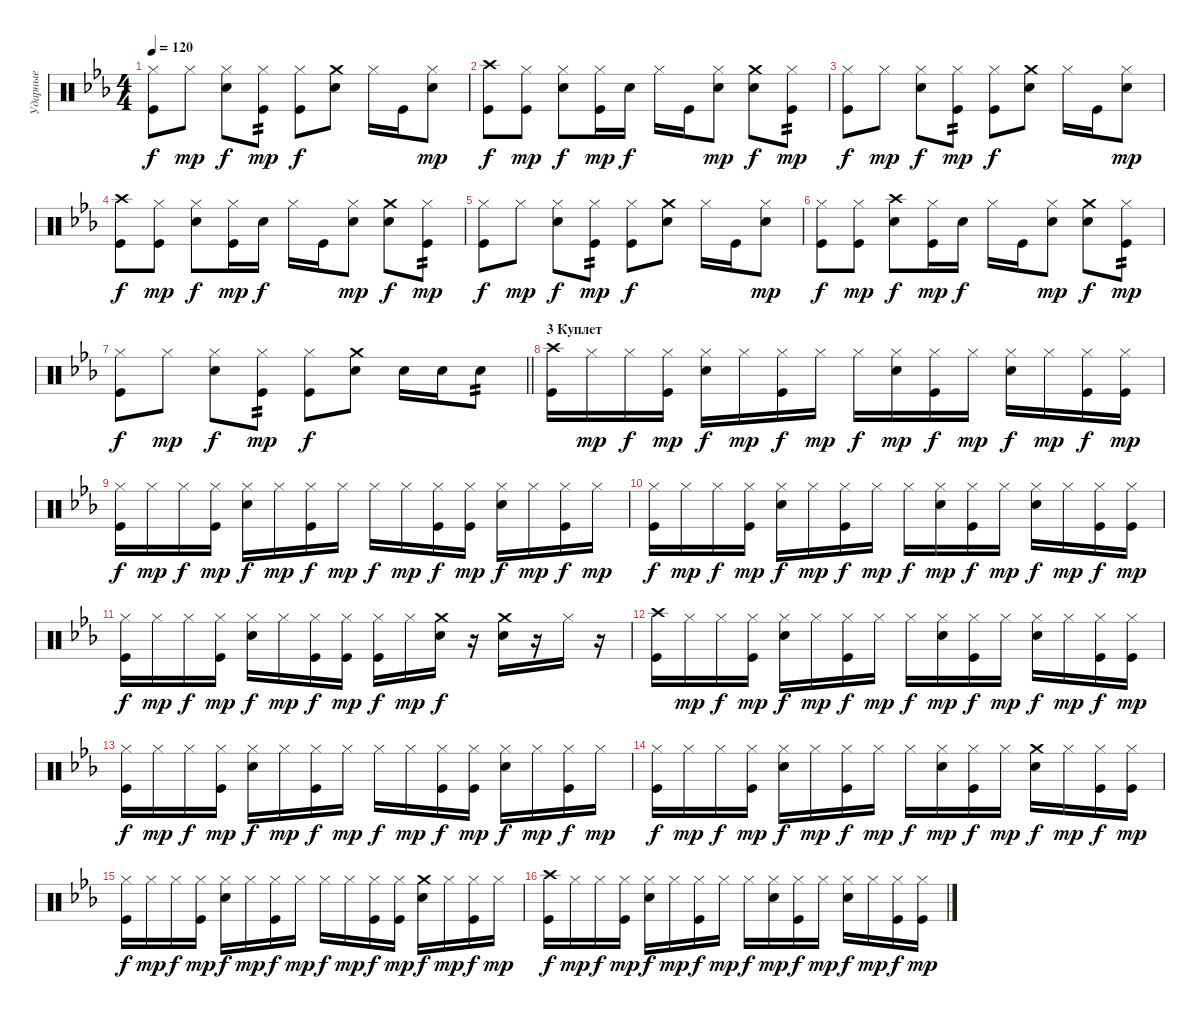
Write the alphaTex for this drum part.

\track ("Ударные" "Ударные") {instrument percussion}
\staff {score}
\articulation defaults
\ts (4 4)
\tempo 120
\clef neutral
\ks cminor
("Hi-Hat (closed)" "Kick (hit)").8{dy f} "Hi-Hat (closed)".8{dy mp} ("Hi-Hat (closed)" "Snare (hit) 2").8{dy f} ("Hi-Hat (closed)" "Kick (hit)").8{tp 2 dy mp} ("Hi-Hat (closed)" "Kick (hit)").8{dy f} ("Crash medium (hit)" "Snare (hit) 2").8 "Hi-Hat (closed)".16 "Kick (hit)".16 ("Hi-Hat (closed)" "Snare (hit) 2").8{dy mp} |
("Crash high (hit)" "Kick (hit)").8{dy f} ("Hi-Hat (closed)" "Kick (hit)").8{dy mp} ("Hi-Hat (closed)" "Snare (hit) 2").8{dy f} ("Hi-Hat (closed)" "Kick (hit)").16{dy mp} "Snare (hit) 2".16{dy f} "Hi-Hat (closed)".16 "Kick (hit)".16 ("Hi-Hat (closed)" "Snare (hit) 2").8{dy mp} ("Crash medium (hit)" "Snare (hit) 2").8{dy f} ("Hi-Hat (closed)" "Kick (hit)").8{tp 2 dy mp} |
("Hi-Hat (closed)" "Kick (hit)").8{dy f} "Hi-Hat (closed)".8{dy mp} ("Hi-Hat (closed)" "Snare (hit) 2").8{dy f} ("Hi-Hat (closed)" "Kick (hit)").8{tp 2 dy mp} ("Hi-Hat (closed)" "Kick (hit)").8{dy f} ("Crash medium (hit)" "Snare (hit) 2").8 "Hi-Hat (closed)".16 "Kick (hit)".16 ("Hi-Hat (closed)" "Snare (hit) 2").8{dy mp} |
("Crash high (hit)" "Kick (hit)").8{dy f} ("Hi-Hat (closed)" "Kick (hit)").8{dy mp} ("Hi-Hat (closed)" "Snare (hit) 2").8{dy f} ("Hi-Hat (closed)" "Kick (hit)").16{dy mp} "Snare (hit) 2".16{dy f} "Hi-Hat (closed)".16 "Kick (hit)".16 ("Hi-Hat (closed)" "Snare (hit) 2").8{dy mp} ("Crash medium (hit)" "Snare (hit) 2").8{dy f} ("Hi-Hat (closed)" "Kick (hit)").8{tp 2 dy mp} |
("Hi-Hat (closed)" "Kick (hit)").8{dy f} "Hi-Hat (closed)".8{dy mp} ("Hi-Hat (closed)" "Snare (hit) 2").8{dy f} ("Hi-Hat (closed)" "Kick (hit)").8{tp 2 dy mp} ("Hi-Hat (closed)" "Kick (hit)").8{dy f} ("Crash medium (hit)" "Snare (hit) 2").8 "Hi-Hat (closed)".16 "Kick (hit)".16 ("Hi-Hat (closed)" "Snare (hit) 2").8{dy mp} |
("Hi-Hat (closed)" "Kick (hit)").8{dy f} ("Hi-Hat (closed)" "Kick (hit)").8{dy mp} ("Crash high (hit)" "Snare (hit) 2").8{dy f} ("Hi-Hat (closed)" "Kick (hit)").16{dy mp} "Snare (hit) 2".16{dy f} "Hi-Hat (closed)".16 "Kick (hit)".16 ("Hi-Hat (closed)" "Snare (hit) 2").8{dy mp} ("Crash medium (hit)" "Snare (hit) 2").8{dy f} ("Hi-Hat (closed)" "Kick (hit)").8{tp 2 dy mp} |
\barLineRight lightlight
("Hi-Hat (closed)" "Kick (hit)").8{dy f} "Hi-Hat (closed)".8{dy mp} ("Hi-Hat (closed)" "Snare (hit) 2").8{dy f} ("Hi-Hat (closed)" "Kick (hit)").8{tp 2 dy mp} ("Hi-Hat (closed)" "Kick (hit)").8{dy f} ("Crash medium (hit)" "Snare (hit) 2").8 "Snare (hit) 2".16 "Snare (hit) 2".16 "Snare (hit) 2".8{tp 2} |
\section ("" "3 Куплет")
("Crash high (hit)" "Kick (hit)").16 "Hi-Hat (closed)".16{dy mp} "Hi-Hat (closed)".16{dy f} ("Hi-Hat (closed)" "Kick (hit)").16{dy mp} ("Hi-Hat (closed)" "Snare (hit) 2").16{dy f} "Hi-Hat (closed)".16{dy mp} ("Hi-Hat (closed)" "Kick (hit)").16{dy f} "Hi-Hat (closed)".16{dy mp} "Hi-Hat (closed)".16{dy f} ("Hi-Hat (closed)" "Snare (hit) 2").16{dy mp} ("Hi-Hat (closed)" "Kick (hit)").16{dy f} "Hi-Hat (closed)".16{dy mp} ("Hi-Hat (closed)" "Snare (hit) 2").16{dy f} "Hi-Hat (closed)".16{dy mp} ("Hi-Hat (closed)" "Kick (hit)").16{dy f} ("Hi-Hat (closed)" "Kick (hit)").16{dy mp} |
("Hi-Hat (closed)" "Kick (hit)").16{dy f} "Hi-Hat (closed)".16{dy mp} "Hi-Hat (closed)".16{dy f} ("Hi-Hat (closed)" "Kick (hit)").16{dy mp} ("Hi-Hat (closed)" "Snare (hit) 2").16{dy f} "Hi-Hat (closed)".16{dy mp} ("Hi-Hat (closed)" "Kick (hit)").16{dy f} "Hi-Hat (closed)".16{dy mp} "Hi-Hat (closed)".16{dy f} "Hi-Hat (closed)".16{dy mp} ("Hi-Hat (closed)" "Kick (hit)").16{dy f} ("Hi-Hat (closed)" "Kick (hit)").16{dy mp} ("Hi-Hat (closed)" "Snare (hit) 2").16{dy f} "Hi-Hat (closed)".16{dy mp} ("Hi-Hat (closed)" "Kick (hit)").16{dy f} "Hi-Hat (closed)".16{dy mp} |
("Hi-Hat (closed)" "Kick (hit)").16{dy f} "Hi-Hat (closed)".16{dy mp} "Hi-Hat (closed)".16{dy f} ("Hi-Hat (closed)" "Kick (hit)").16{dy mp} ("Hi-Hat (closed)" "Snare (hit) 2").16{dy f} "Hi-Hat (closed)".16{dy mp} ("Hi-Hat (closed)" "Kick (hit)").16{dy f} "Hi-Hat (closed)".16{dy mp} "Hi-Hat (closed)".16{dy f} ("Hi-Hat (closed)" "Snare (hit) 2").16{dy mp} ("Hi-Hat (closed)" "Kick (hit)").16{dy f} "Hi-Hat (closed)".16{dy mp} ("Hi-Hat (closed)" "Snare (hit) 2").16{dy f} "Hi-Hat (closed)".16{dy mp} ("Hi-Hat (closed)" "Kick (hit)").16{dy f} ("Hi-Hat (closed)" "Kick (hit)").16{dy mp} |
("Hi-Hat (closed)" "Kick (hit)").16{dy f} "Hi-Hat (closed)".16{dy mp} "Hi-Hat (closed)".16{dy f} ("Hi-Hat (closed)" "Kick (hit)").16{dy mp} ("Hi-Hat (closed)" "Snare (hit) 2").16{dy f} "Hi-Hat (closed)".16{dy mp} ("Hi-Hat (closed)" "Kick (hit)").16{dy f} ("Hi-Hat (closed)" "Kick (hit)").16{dy mp} ("Hi-Hat (closed)" "Kick (hit)").16{dy f} "Hi-Hat (closed)".16{dy mp} ("Crash medium (hit)" "Snare (hit) 2").16{dy f} r.16 ("Crash medium (hit)" "Snare (hit) 2").16 r.16 "Hi-Hat (closed)".16 r.16 |
("Crash high (hit)" "Kick (hit)").16 "Hi-Hat (closed)".16{dy mp} "Hi-Hat (closed)".16{dy f} ("Hi-Hat (closed)" "Kick (hit)").16{dy mp} ("Hi-Hat (closed)" "Snare (hit) 2").16{dy f} "Hi-Hat (closed)".16{dy mp} ("Hi-Hat (closed)" "Kick (hit)").16{dy f} "Hi-Hat (closed)".16{dy mp} "Hi-Hat (closed)".16{dy f} ("Hi-Hat (closed)" "Snare (hit) 2").16{dy mp} ("Hi-Hat (closed)" "Kick (hit)").16{dy f} "Hi-Hat (closed)".16{dy mp} ("Hi-Hat (closed)" "Snare (hit) 2").16{dy f} "Hi-Hat (closed)".16{dy mp} ("Hi-Hat (closed)" "Kick (hit)").16{dy f} ("Hi-Hat (closed)" "Kick (hit)").16{dy mp} |
("Hi-Hat (closed)" "Kick (hit)").16{dy f} "Hi-Hat (closed)".16{dy mp} "Hi-Hat (closed)".16{dy f} ("Hi-Hat (closed)" "Kick (hit)").16{dy mp} ("Hi-Hat (closed)" "Snare (hit) 2").16{dy f} "Hi-Hat (closed)".16{dy mp} ("Hi-Hat (closed)" "Kick (hit)").16{dy f} "Hi-Hat (closed)".16{dy mp} "Hi-Hat (closed)".16{dy f} "Hi-Hat (closed)".16{dy mp} ("Hi-Hat (closed)" "Kick (hit)").16{dy f} ("Hi-Hat (closed)" "Kick (hit)").16{dy mp} ("Hi-Hat (closed)" "Snare (hit) 2").16{dy f} "Hi-Hat (closed)".16{dy mp} ("Hi-Hat (closed)" "Kick (hit)").16{dy f} "Hi-Hat (closed)".16{dy mp} |
("Hi-Hat (closed)" "Kick (hit)").16{dy f} "Hi-Hat (closed)".16{dy mp} "Hi-Hat (closed)".16{dy f} ("Hi-Hat (closed)" "Kick (hit)").16{dy mp} ("Hi-Hat (closed)" "Snare (hit) 2").16{dy f} "Hi-Hat (closed)".16{dy mp} ("Hi-Hat (closed)" "Kick (hit)").16{dy f} "Hi-Hat (closed)".16{dy mp} "Hi-Hat (closed)".16{dy f} ("Hi-Hat (closed)" "Snare (hit) 2").16{dy mp} ("Hi-Hat (closed)" "Kick (hit)").16{dy f} "Hi-Hat (closed)".16{dy mp} ("Crash medium (hit)" "Snare (hit) 2").16{dy f} "Hi-Hat (closed)".16{dy mp} ("Hi-Hat (closed)" "Kick (hit)").16{dy f} ("Hi-Hat (closed)" "Kick (hit)").16{dy mp} |
("Hi-Hat (closed)" "Kick (hit)").16{dy f} "Hi-Hat (closed)".16{dy mp} "Hi-Hat (closed)".16{dy f} ("Hi-Hat (closed)" "Kick (hit)").16{dy mp} ("Hi-Hat (closed)" "Snare (hit) 2").16{dy f} "Hi-Hat (closed)".16{dy mp} ("Hi-Hat (closed)" "Kick (hit)").16{dy f} "Hi-Hat (closed)".16{dy mp} "Hi-Hat (closed)".16{dy f} "Hi-Hat (closed)".16{dy mp} ("Hi-Hat (closed)" "Kick (hit)").16{dy f} ("Hi-Hat (closed)" "Kick (hit)").16{dy mp} ("Crash medium (hit)" "Snare (hit) 2").16{dy f} "Hi-Hat (closed)".16{dy mp} ("Hi-Hat (closed)" "Kick (hit)").16{dy f} "Hi-Hat (closed)".16{dy mp} |
("Crash high (hit)" "Kick (hit)").16{dy f} "Hi-Hat (closed)".16{dy mp} "Hi-Hat (closed)".16{dy f} ("Hi-Hat (closed)" "Kick (hit)").16{dy mp} ("Hi-Hat (closed)" "Snare (hit) 2").16{dy f} "Hi-Hat (closed)".16{dy mp} ("Hi-Hat (closed)" "Kick (hit)").16{dy f} "Hi-Hat (closed)".16{dy mp} "Hi-Hat (closed)".16{dy f} ("Hi-Hat (closed)" "Snare (hit) 2").16{dy mp} ("Hi-Hat (closed)" "Kick (hit)").16{dy f} "Hi-Hat (closed)".16{dy mp} ("Hi-Hat (closed)" "Snare (hit) 2").16{dy f} "Hi-Hat (closed)".16{dy mp} ("Hi-Hat (closed)" "Kick (hit)").16{dy f} ("Hi-Hat (closed)" "Kick (hit)").16{dy mp}
